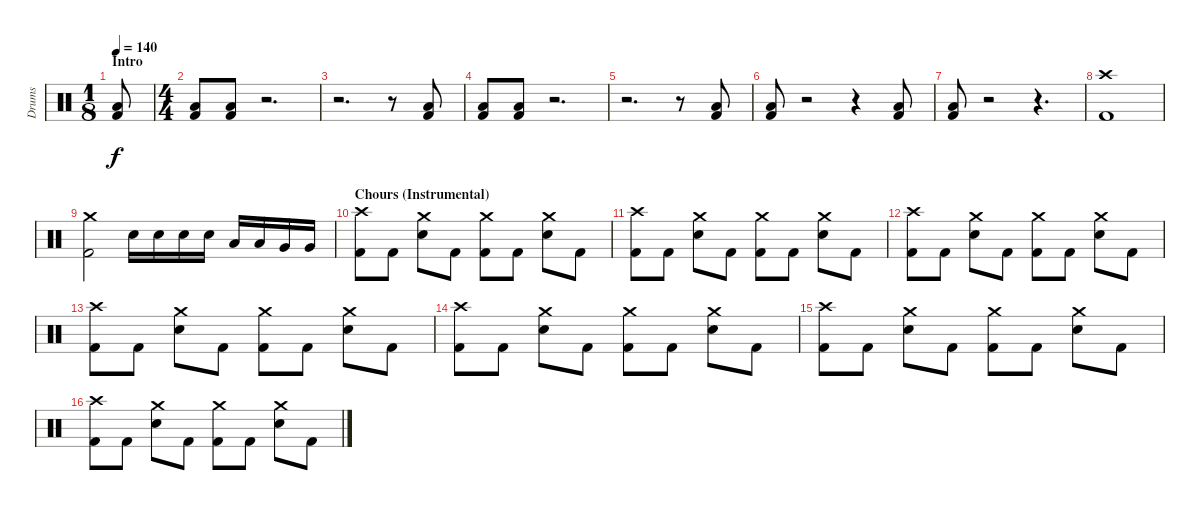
\track ("Drums" "Drums") {instrument percussion}
\staff {score}
\articulation defaults
\ts (1 8)
\section ("" "Intro")
\tempo 140
\clef neutral
\ks c
("Low Tom (hit)" "Kick (hit) 2").8{dy f} |
\ts (4 4)
("Low Tom (hit)" "Kick (hit) 2").8 ("Low Floor Tom (hit)" "Kick (hit) 2").8 r.2{d} |
r.2{d} r.8 ("Low Tom (hit)" "Kick (hit) 2").8 |
("Low Tom (hit)" "Kick (hit) 2").8 ("Low Floor Tom (hit)" "Kick (hit) 2").8 r.2{d} |
r.2{d} r.8 ("Low Tom (hit)" "Kick (hit) 2").8 |
("Low Tom (hit)" "Kick (hit) 2").8 r.2 r.4 ("Low Tom (hit)" "Kick (hit) 2").8 |
("Low Tom (hit)" "Kick (hit) 2").8 r.2 r.4{d} |
("Crash high (hit)" "Kick (hit) 2").1 |
("Crash medium (hit)" "Kick (hit) 2").2 "Snare (hit) 2".16 "Snare (hit) 2".16 "Snare (hit) 2".16 "Snare (hit) 2".16 "Low Tom (hit)".16 "Low Tom (hit)".16 "Very Low Tom (hit)".16 "Very Low Tom (hit)".16 |
\section ("" "Chours (Instrumental)")
("Crash high (hit)" "Kick (hit) 2").8 "Kick (hit) 2".8 ("Crash medium (hit)" "Snare (hit) 2").8 "Kick (hit) 2".8 ("Crash medium (hit)" "Kick (hit) 2").8 "Kick (hit) 2".8 ("Crash medium (hit)" "Snare (hit) 2").8 "Kick (hit) 2".8 |
("Crash high (hit)" "Kick (hit) 2").8 "Kick (hit) 2".8 ("Crash medium (hit)" "Snare (hit) 2").8 "Kick (hit) 2".8 ("Crash medium (hit)" "Kick (hit) 2").8 "Kick (hit) 2".8 ("Crash medium (hit)" "Snare (hit) 2").8 "Kick (hit) 2".8 |
("Crash high (hit)" "Kick (hit) 2").8 "Kick (hit) 2".8 ("Crash medium (hit)" "Snare (hit) 2").8 "Kick (hit) 2".8 ("Crash medium (hit)" "Kick (hit) 2").8 "Kick (hit) 2".8 ("Crash medium (hit)" "Snare (hit) 2").8 "Kick (hit) 2".8 |
("Crash high (hit)" "Kick (hit) 2").8 "Kick (hit) 2".8 ("Crash medium (hit)" "Snare (hit) 2").8 "Kick (hit) 2".8 ("Crash medium (hit)" "Kick (hit) 2").8 "Kick (hit) 2".8 ("Crash medium (hit)" "Snare (hit) 2").8 "Kick (hit) 2".8 |
("Crash high (hit)" "Kick (hit) 2").8 "Kick (hit) 2".8 ("Crash medium (hit)" "Snare (hit) 2").8 "Kick (hit) 2".8 ("Crash medium (hit)" "Kick (hit) 2").8 "Kick (hit) 2".8 ("Crash medium (hit)" "Snare (hit) 2").8 "Kick (hit) 2".8 |
("Crash high (hit)" "Kick (hit) 2").8 "Kick (hit) 2".8 ("Crash medium (hit)" "Snare (hit) 2").8 "Kick (hit) 2".8 ("Crash medium (hit)" "Kick (hit) 2").8 "Kick (hit) 2".8 ("Crash medium (hit)" "Snare (hit) 2").8 "Kick (hit) 2".8 |
("Crash high (hit)" "Kick (hit) 2").8 "Kick (hit) 2".8 ("Crash medium (hit)" "Snare (hit) 2").8 "Kick (hit) 2".8 ("Crash medium (hit)" "Kick (hit) 2").8 "Kick (hit) 2".8 ("Crash medium (hit)" "Snare (hit) 2").8 "Kick (hit) 2".8
